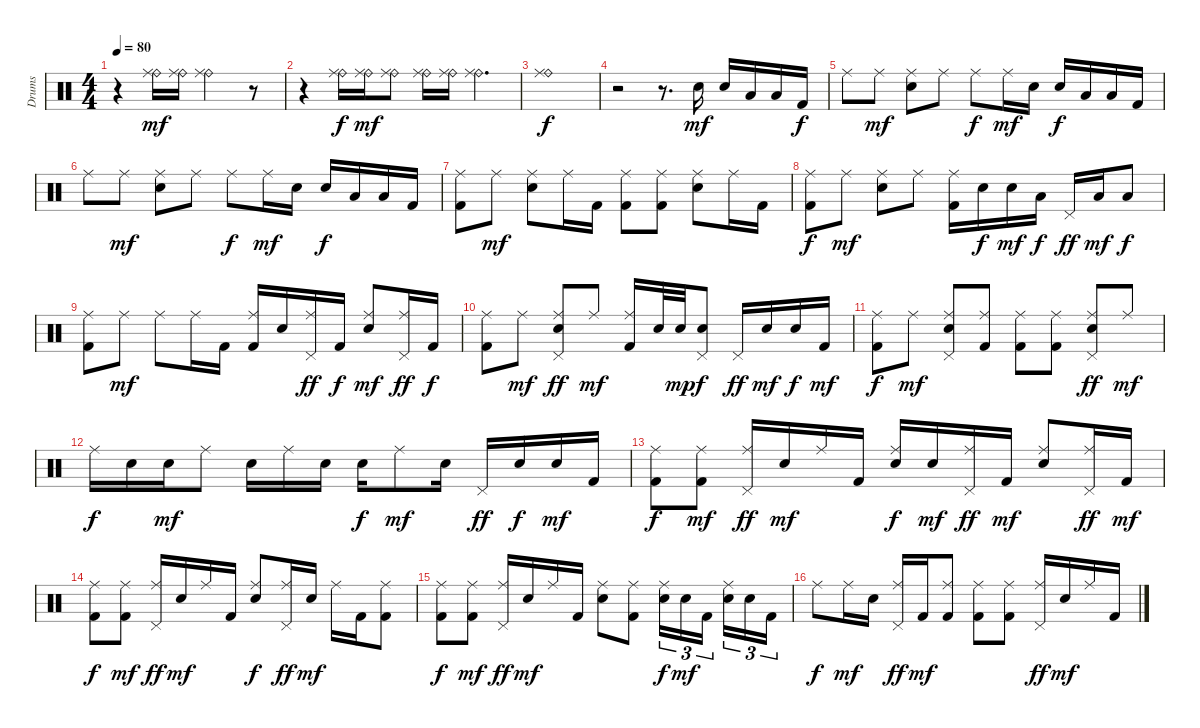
\track ("Drums" "Drums") {instrument percussion}
\staff {score}
\articulation defaults
\ts (4 4)
\tempo 80
\clef neutral
\ks c
r.4{dy mf} ("Ride (bell)" "Ride (middle)").16 ("Ride (bell)" "Ride (middle)").16 ("Ride (bell)" "Ride (middle)").2 r.8 |
r.4 ("Ride (bell)" "Ride (middle)").16{dy f} ("Ride (bell)" "Ride (middle)").16{dy mf} ("Ride (bell)" "Ride (middle)").8 ("Ride (bell)" "Ride (middle)").16 ("Ride (bell)" "Ride (middle)").16 ("Ride (bell)" "Ride (middle)").4{d} |
("Ride (bell)" "Ride (middle)").1{dy f} |
r.2 r.8{d} "Electric Snare (hit)".16{dy mf} "Electric Snare (hit)".16 "Low Floor Tom (hit)".16 "Low Tom (hit)".16 "Kick (hit) 2".16{dy f} |
"Ride (middle)".8 "Ride (middle)".8{dy mf} ("Ride (middle)" "Electric Snare (hit)").8 "Ride (middle)".8 "Ride (middle)".8{dy f} "Ride (middle)".16{dy mf} "Electric Snare (hit)".16 "Electric Snare (hit)".16{dy f} "Low Floor Tom (hit)".16 "Low Tom (hit)".16 "Kick (hit) 2".16 |
"Ride (middle)".8 "Ride (middle)".8{dy mf} ("Ride (middle)" "Electric Snare (hit)").8 "Ride (middle)".8 "Ride (middle)".8{dy f} "Ride (middle)".16{dy mf} "Electric Snare (hit)".16 "Electric Snare (hit)".16{dy f} "Low Floor Tom (hit)".16 "Low Tom (hit)".16 "Kick (hit) 2".16 |
("Ride (middle)" "Kick (hit) 2").8 "Ride (middle)".8{dy mf} ("Ride (middle)" "Electric Snare (hit)").8 "Ride (middle)".16 "Kick (hit) 2".16 ("Ride (middle)" "Kick (hit) 2").8 ("Ride (middle)" "Kick (hit) 2").8 ("Ride (middle)" "Electric Snare (hit)").8 "Ride (middle)".16 "Kick (hit) 2".16 |
("Ride (middle)" "Kick (hit) 2").8{dy f} "Ride (middle)".8{dy mf} ("Ride (middle)" "Electric Snare (hit)").8 "Ride (middle)".8 ("Ride (middle)" "Kick (hit) 2").16 "Electric Snare (hit)".16{dy f} "Electric Snare (hit)".16{dy mf} "Low Tom (hit)".16{dy f} "Pedal Hi-Hat (hit)".16{dy ff} "Low Tom (hit)".16{dy mf} "Low Floor Tom (hit)".8{dy f} |
("Ride (middle)" "Kick (hit) 2").8 "Ride (middle)".8{dy mf} "Ride (middle)".8 "Ride (middle)".16 "Kick (hit) 2".16 ("Ride (middle)" "Kick (hit) 2").16 "Electric Snare (hit)".16 ("Ride (middle)" "Pedal Hi-Hat (hit)").16{dy ff} "Kick (hit) 2".16{dy f} ("Ride (middle)" "Electric Snare (hit)").8{dy mf} ("Ride (middle)" "Pedal Hi-Hat (hit)").16{dy ff} "Kick (hit) 2".16{dy f} |
("Ride (middle)" "Kick (hit) 2").8 "Ride (middle)".8{dy mf} ("Ride (middle)" "Pedal Hi-Hat (hit)" "Electric Snare (hit)").8{dy ff} "Ride (middle)".8{dy mf} ("Ride (middle)" "Kick (hit) 2").16 "Electric Snare (hit)".32 "Electric Snare (hit)".32{dy mp} ("Pedal Hi-Hat (hit)" "Electric Snare (hit)").8{dy f} "Pedal Hi-Hat (hit)".16{dy ff} "Electric Snare (hit)".16{dy mf} "Electric Snare (hit)".16{dy f} "Kick (hit) 2".16{dy mf} |
("Ride (middle)" "Kick (hit) 2").8{dy f} "Ride (middle)".8{dy mf} ("Ride (middle)" "Pedal Hi-Hat (hit)" "Electric Snare (hit)").8 ("Ride (middle)" "Kick (hit) 2").8 ("Ride (middle)" "Kick (hit) 2").8 ("Ride (middle)" "Kick (hit) 2").8 ("Ride (middle)" "Pedal Hi-Hat (hit)" "Electric Snare (hit)").8{dy ff} "Ride (middle)".8{dy mf} |
"Ride (middle)".16{dy f} "Electric Snare (hit)".16 "Electric Snare (hit)".16{dy mf} "Ride (middle)".8 "Electric Snare (hit)".16 "Ride (middle)".16 "Electric Snare (hit)".16 "Electric Snare (hit)".16{dy f} "Ride (middle)".8{dy mf} "Electric Snare (hit)".16 "Pedal Hi-Hat (hit)".16{dy ff} "Electric Snare (hit)".16{dy f} "Electric Snare (hit)".16{dy mf} "Kick (hit) 2".16 |
("Ride (middle)" "Kick (hit) 2").8{dy f} ("Ride (middle)" "Kick (hit) 2").8{dy mf} ("Ride (middle)" "Pedal Hi-Hat (hit)").16{dy ff} "Electric Snare (hit)".16{dy mf} "Ride (middle)".16 "Kick (hit) 2".16 ("Ride (middle)" "Electric Snare (hit)").16{dy f} "Electric Snare (hit)".16{dy mf} ("Ride (middle)" "Pedal Hi-Hat (hit)").16{dy ff} "Kick (hit) 2".16{dy mf} ("Ride (middle)" "Electric Snare (hit)").8 ("Ride (middle)" "Pedal Hi-Hat (hit)").16{dy ff} "Kick (hit) 2".16{dy mf} |
("Ride (middle)" "Kick (hit) 2").8{dy f} ("Ride (middle)" "Kick (hit) 2").8{dy mf} ("Ride (middle)" "Pedal Hi-Hat (hit)").16{dy ff} "Electric Snare (hit)".16{dy mf} "Ride (middle)".16 "Kick (hit) 2".16 ("Ride (middle)" "Electric Snare (hit)").8{dy f} ("Ride (middle)" "Pedal Hi-Hat (hit)").16{dy ff} "Electric Snare (hit)".16{dy mf} "Ride (middle)".16 "Kick (hit) 2".16 ("Ride (middle)" "Kick (hit) 2").8 |
("Ride (middle)" "Kick (hit) 2").8{dy f} ("Ride (middle)" "Kick (hit) 2").8{dy mf} ("Ride (middle)" "Pedal Hi-Hat (hit)").16{dy ff} "Electric Snare (hit)".16{dy mf} "Ride (middle)".16 "Kick (hit) 2".16 ("Ride (middle)" "Electric Snare (hit)").8 ("Ride (middle)" "Kick (hit) 2").8 ("Ride (middle)" "Electric Snare (hit)").16{tu (3 2) dy f} "Electric Snare (hit)".16{tu (3 2) dy mf} "Kick (hit) 2".16{tu (3 2) beam splitsecondary} ("Ride (middle)" "Electric Snare (hit)").16{tu (3 2)} "Electric Snare (hit)".16{tu (3 2)} "Kick (hit) 2".16{tu (3 2)} |
"Ride (middle)".8{dy f} "Ride (middle)".16{dy mf} "Electric Snare (hit)".16 ("Ride (middle)" "Pedal Hi-Hat (hit)").16{dy ff} "Kick (hit) 2".16{dy mf} ("Ride (middle)" "Kick (hit) 2").8 ("Ride (middle)" "Kick (hit) 2").8 ("Ride (middle)" "Kick (hit) 2").8 ("Ride (middle)" "Pedal Hi-Hat (hit)").16{dy ff} "Electric Snare (hit)".16{dy mf} "Ride (middle)".16 "Kick (hit) 2".16
